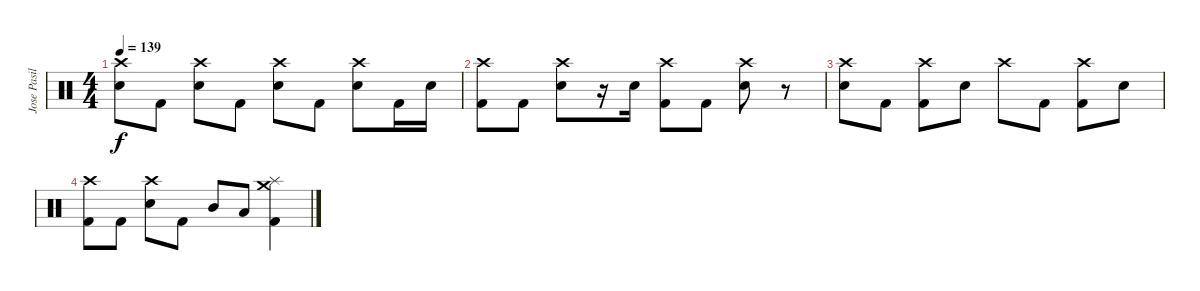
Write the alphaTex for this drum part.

\track ("Jose Pasillas - Drums" "Jose Pasil") {instrument percussion}
\staff {score}
\articulation defaults
\ts (4 4)
\tempo 139
\clef neutral
\ks c
("Crash high (hit)" "Electric Snare (hit)").8{dy f} "Kick (hit) 2".8 ("Crash high (hit)" "Electric Snare (hit)").8 "Kick (hit) 2".8 ("Crash high (hit)" "Electric Snare (hit)").8 "Kick (hit) 2".8 ("Crash high (hit)" "Electric Snare (hit)").8 "Kick (hit) 2".16 "Electric Snare (hit)".16 |
("Crash high (hit)" "Kick (hit) 2").8 "Kick (hit) 2".8 ("Crash high (hit)" "Electric Snare (hit)").8 r.16 "Electric Snare (hit)".16 ("Crash high (hit)" "Kick (hit) 2").8 "Kick (hit) 2".8 ("Crash high (hit)" "Electric Snare (hit)").8 r.8 |
("Crash high (hit)" "Electric Snare (hit)").8 "Kick (hit) 2".8 ("Crash high (hit)" "Kick (hit) 2").8 "Electric Snare (hit)".8 "Crash high (hit)".8 "Kick (hit) 2".8 ("Crash high (hit)" "Kick (hit) 2").8 "Electric Snare (hit)".8 |
("Crash high (hit)" "Kick (hit) 2").8 "Kick (hit) 2".8 ("Crash high (hit)" "Electric Snare (hit)").8 "Kick (hit) 2".8 "Mid Tom (hit)".8 "Low Tom (hit)".8 ("Crash medium (hit)" "Splash (hit)" "Kick (hit) 2").4
